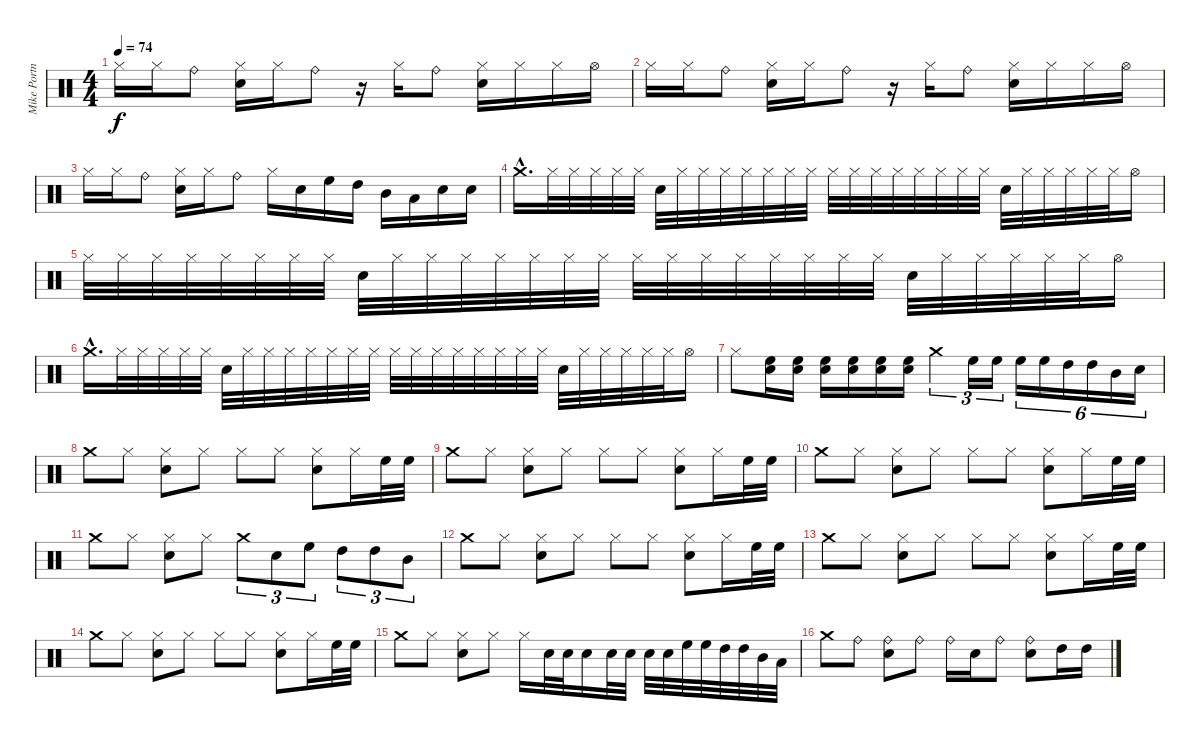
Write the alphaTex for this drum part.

\track ("Mike Portnoy" "Mike Portn") {instrument percussion}
\staff {score}
\articulation defaults
\ts (4 4)
\tempo 74
\clef neutral
\ks c "Hi-Hat (closed)".16{dy f} "Hi-Hat (closed)".16 "Ride (bell)".8
("Hi-Hat (closed)" "Electric Snare (hit)").16 "Hi-Hat (closed)".16 "Ride (bell)".8 r.16 "Hi-Hat (closed)".16 "Ride (bell)".8 ("Hi-Hat (closed)" "Electric Snare (hit)").16 "Hi-Hat (closed)".16 "Hi-Hat (closed)".16 "Hi-Hat (open)".16 |
"Hi-Hat (closed)".16 "Hi-Hat (closed)".16 "Ride (bell)".8 ("Hi-Hat (closed)" "Electric Snare (hit)").16 "Hi-Hat (closed)".16 "Ride (bell)".8 r.16 "Hi-Hat (closed)".16 "Ride (bell)".8 ("Hi-Hat (closed)" "Electric Snare (hit)").16 "Hi-Hat (closed)".16 "Hi-Hat (closed)".16 "Hi-Hat (open)".16 |
"Hi-Hat (closed)".16 "Hi-Hat (closed)".16 "Ride (bell)".8 ("Hi-Hat (closed)" "Electric Snare (hit)").16 "Hi-Hat (closed)".16 "Ride (bell)".8 "Hi-Hat (closed)".16 "Electric Snare (hit)".16 "High Floor Tom (hit)".16 "High Tom (hit)".16 "Mid Tom (hit)".16 "Low Tom (hit)".16 "Electric Snare (hit)".16 "Electric Snare (hit)".16 |
"Crash medium (hit)"{hac}.16{d} "Hi-Hat (closed)".32 "Hi-Hat (closed)".32 "Hi-Hat (closed)".32 "Hi-Hat (closed)".32 "Hi-Hat (closed)".32 "Electric Snare (hit)".32 "Hi-Hat (closed)".32 "Hi-Hat (closed)".32 "Hi-Hat (closed)".32 "Hi-Hat (closed)".32 "Hi-Hat (closed)".32 "Hi-Hat (closed)".32 "Hi-Hat (closed)".32 "Hi-Hat (closed)".32 "Hi-Hat (closed)".32 "Hi-Hat (closed)".32 "Hi-Hat (closed)".32 "Hi-Hat (closed)".32 "Hi-Hat (closed)".32 "Hi-Hat (closed)".32 "Hi-Hat (closed)".32 "Electric Snare (hit)".32 "Hi-Hat (closed)".32 "Hi-Hat (closed)".32 "Hi-Hat (closed)".32 "Hi-Hat (closed)".32 "Hi-Hat (closed)".32 "Hi-Hat (open)".16 |
"Hi-Hat (closed)".32 "Hi-Hat (closed)".32 "Hi-Hat (closed)".32 "Hi-Hat (closed)".32 "Hi-Hat (closed)".32 "Hi-Hat (closed)".32 "Hi-Hat (closed)".32 "Hi-Hat (closed)".32 "Electric Snare (hit)".32 "Hi-Hat (closed)".32 "Hi-Hat (closed)".32 "Hi-Hat (closed)".32 "Hi-Hat (closed)".32 "Hi-Hat (closed)".32 "Hi-Hat (closed)".32 "Hi-Hat (closed)".32 "Hi-Hat (closed)".32 "Hi-Hat (closed)".32 "Hi-Hat (closed)".32 "Hi-Hat (closed)".32 "Hi-Hat (closed)".32 "Hi-Hat (closed)".32 "Hi-Hat (closed)".32 "Hi-Hat (closed)".32 "Electric Snare (hit)".32 "Hi-Hat (closed)".32 "Hi-Hat (closed)".32 "Hi-Hat (closed)".32 "Hi-Hat (closed)".32 "Hi-Hat (closed)".32 "Hi-Hat (open)".16 |
"Crash medium (hit)"{hac}.16{d} "Hi-Hat (closed)".32 "Hi-Hat (closed)".32 "Hi-Hat (closed)".32 "Hi-Hat (closed)".32 "Hi-Hat (closed)".32 "Electric Snare (hit)".32 "Hi-Hat (closed)".32 "Hi-Hat (closed)".32 "Hi-Hat (closed)".32 "Hi-Hat (closed)".32 "Hi-Hat (closed)".32 "Hi-Hat (closed)".32 "Hi-Hat (closed)".32 "Hi-Hat (closed)".32 "Hi-Hat (closed)".32 "Hi-Hat (closed)".32 "Hi-Hat (closed)".32 "Hi-Hat (closed)".32 "Hi-Hat (closed)".32 "Hi-Hat (closed)".32 "Hi-Hat (closed)".32 "Electric Snare (hit)".32 "Hi-Hat (closed)".32 "Hi-Hat (closed)".32 "Hi-Hat (closed)".32 "Hi-Hat (closed)".32 "Hi-Hat (closed)".32 "Hi-Hat (open)".16 |
"Hi-Hat (closed)".8 ("Electric Snare (hit)" "High Floor Tom (hit)").16 ("Electric Snare (hit)" "High Floor Tom (hit)").16 ("Electric Snare (hit)" "High Floor Tom (hit)").16 ("Electric Snare (hit)" "High Floor Tom (hit)").16 ("Electric Snare (hit)" "High Floor Tom (hit)").16 ("Electric Snare (hit)" "High Floor Tom (hit)").16 "Crash medium (hit)".4{tu (3 2)} "High Floor Tom (hit)".16{tu (3 2)} "High Floor Tom (hit)".16{tu (3 2)} "High Floor Tom (hit)".16{tu (6 4)} "High Floor Tom (hit)".16{tu (6 4)} "High Tom (hit)".16{tu (6 4)} "High Tom (hit)".16{tu (6 4)} "Mid Tom (hit)".16{tu (6 4)} "Electric Snare (hit)".16{tu (6 4)} |
"Crash medium (hit)".8 "Hi-Hat (closed)".8 ("Hi-Hat (closed)" "Electric Snare (hit)").8 "Hi-Hat (closed)".8 "Hi-Hat (closed)".8 "Hi-Hat (closed)".8 ("Hi-Hat (closed)" "Electric Snare (hit)").8 "Hi-Hat (closed)".16 "High Floor Tom (hit)".32 "High Floor Tom (hit)".32 |
"Crash medium (hit)".8 "Hi-Hat (closed)".8 ("Hi-Hat (closed)" "Electric Snare (hit)").8 "Hi-Hat (closed)".8 "Hi-Hat (closed)".8 "Hi-Hat (closed)".8 ("Hi-Hat (closed)" "Electric Snare (hit)").8 "Hi-Hat (closed)".16 "High Floor Tom (hit)".32 "High Floor Tom (hit)".32 |
"Crash medium (hit)".8 "Hi-Hat (closed)".8 ("Hi-Hat (closed)" "Electric Snare (hit)").8 "Hi-Hat (closed)".8 "Hi-Hat (closed)".8 "Hi-Hat (closed)".8 ("Hi-Hat (closed)" "Electric Snare (hit)").8 "Hi-Hat (closed)".16 "High Floor Tom (hit)".32 "High Floor Tom (hit)".32 |
"Crash medium (hit)".8 "Hi-Hat (closed)".8 ("Hi-Hat (closed)" "Electric Snare (hit)").8 "Hi-Hat (closed)".8 "Crash medium (hit)".8{tu (3 2)} "Electric Snare (hit)".8{tu (3 2)} "High Floor Tom (hit)".8{tu (3 2)} "High Tom (hit)".8{tu (3 2)} "High Tom (hit)".8{tu (3 2)} "Mid Tom (hit)".8{tu (3 2)} |
"Crash medium (hit)".8 "Hi-Hat (closed)".8 ("Hi-Hat (closed)" "Electric Snare (hit)").8 "Hi-Hat (closed)".8 "Hi-Hat (closed)".8 "Hi-Hat (closed)".8 ("Hi-Hat (closed)" "Electric Snare (hit)").8 "Hi-Hat (closed)".16 "High Floor Tom (hit)".32 "High Floor Tom (hit)".32 |
"Crash medium (hit)".8 "Hi-Hat (closed)".8 ("Hi-Hat (closed)" "Electric Snare (hit)").8 "Hi-Hat (closed)".8 "Hi-Hat (closed)".8 "Hi-Hat (closed)".8 ("Hi-Hat (closed)" "Electric Snare (hit)").8 "Hi-Hat (closed)".16 "High Floor Tom (hit)".32 "High Floor Tom (hit)".32 |
"Crash medium (hit)".8 "Hi-Hat (closed)".8 ("Hi-Hat (closed)" "Electric Snare (hit)").8 "Hi-Hat (closed)".8 "Hi-Hat (closed)".8 "Hi-Hat (closed)".8 ("Hi-Hat (closed)" "Electric Snare (hit)").8 "Hi-Hat (closed)".16 "High Floor Tom (hit)".32 "High Floor Tom (hit)".32 |
"Crash medium (hit)".8 "Hi-Hat (closed)".8 ("Hi-Hat (closed)" "Electric Snare (hit)").8 "Hi-Hat (closed)".8 "Hi-Hat (closed)".16 "Electric Snare (hit)".32 "Electric Snare (hit)".32 "Electric Snare (hit)".16 "Electric Snare (hit)".32 "Electric Snare (hit)".32 "Electric Snare (hit)".32 "Electric Snare (hit)".32 "High Floor Tom (hit)".32 "High Floor Tom (hit)".32 "High Tom (hit)".32 "High Tom (hit)".32 "Mid Tom (hit)".32 "Low Tom (hit)".32 |
"Crash medium (hit)".8 "Ride (bell)".8 ("Ride (bell)" "Electric Snare (hit)").8 "Ride (bell)".8 "Ride (bell)".16 "Electric Snare (hit)".16 "Ride (bell)".8 ("Ride (bell)" "Electric Snare (hit)").8 "High Tom (hit)".16 "High Tom (hit)".16
